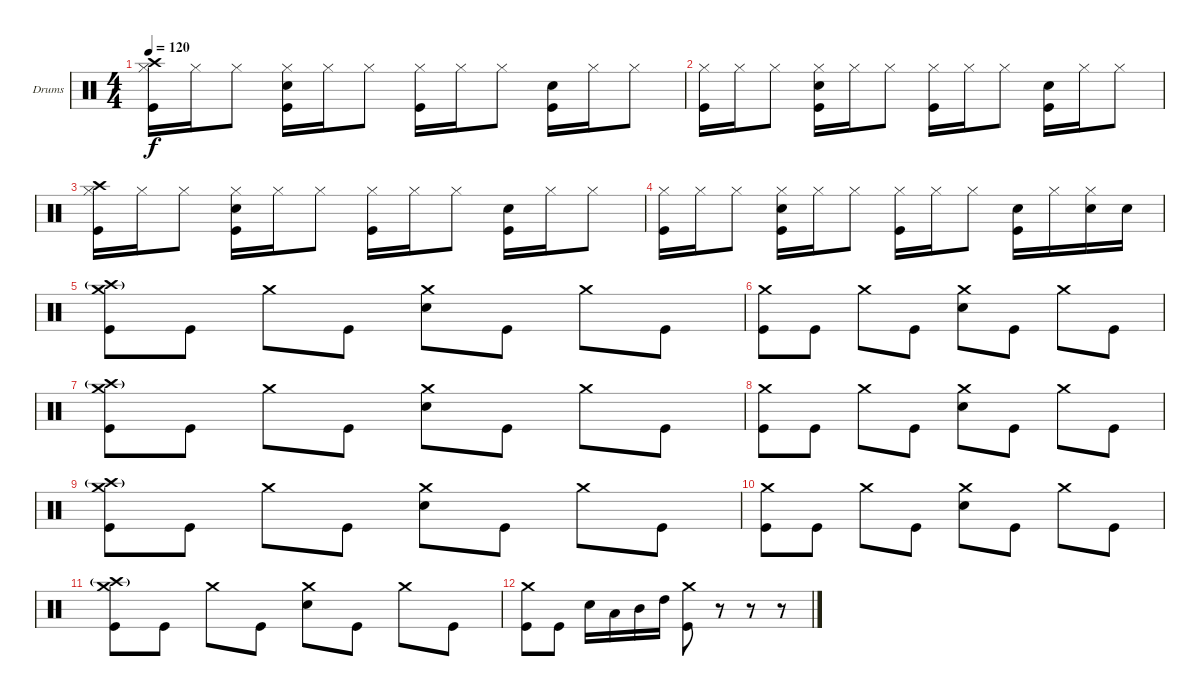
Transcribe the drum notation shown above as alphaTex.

\defaultSystemsLayout 4
\bracketExtendMode groupsimilarinstruments
\firstSystemTrackNameOrientation horizontal
\otherSystemsTrackNameOrientation horizontal
\track ("Drumkit" "Drums") {instrument percussion}
\staff {score}
\articulation defaults
\ts (4 4)
\tempo 120
\clef neutral
\ks c
("Hi-Hat (closed)" "Crash high (hit)" "Kick (hit)").16{dy f} "Hi-Hat (closed)".16 "Hi-Hat (closed)".8 ("Hi-Hat (closed)" "Snare (hit) 2" "Kick (hit)").16 "Hi-Hat (closed)".16 "Hi-Hat (closed)".8 ("Hi-Hat (closed)" "Kick (hit)").16 "Hi-Hat (closed)".16 "Hi-Hat (closed)".8 ("Snare (hit) 2" "Kick (hit)").16 "Hi-Hat (closed)".16 "Hi-Hat (closed)".8 |
("Hi-Hat (closed)" "Kick (hit)").16 "Hi-Hat (closed)".16 "Hi-Hat (closed)".8 ("Hi-Hat (closed)" "Snare (hit) 2" "Kick (hit)").16 "Hi-Hat (closed)".16 "Hi-Hat (closed)".8 ("Hi-Hat (closed)" "Kick (hit)").16 "Hi-Hat (closed)".16 "Hi-Hat (closed)".8 ("Snare (hit) 2" "Kick (hit)").16 "Hi-Hat (closed)".16 "Hi-Hat (closed)".8 |
("Hi-Hat (closed)" "Crash high (hit)" "Kick (hit)").16 "Hi-Hat (closed)".16 "Hi-Hat (closed)".8 ("Hi-Hat (closed)" "Snare (hit) 2" "Kick (hit)").16 "Hi-Hat (closed)".16 "Hi-Hat (closed)".8 ("Hi-Hat (closed)" "Kick (hit)").16 "Hi-Hat (closed)".16 "Hi-Hat (closed)".8 ("Snare (hit) 2" "Kick (hit)").16 "Hi-Hat (closed)".16 "Hi-Hat (closed)".8 |
("Hi-Hat (closed)" "Kick (hit)").16 "Hi-Hat (closed)".16 "Hi-Hat (closed)".8 ("Hi-Hat (closed)" "Snare (hit) 2" "Kick (hit)").16 "Hi-Hat (closed)".16 "Hi-Hat (closed)".8 ("Hi-Hat (closed)" "Kick (hit)").16 "Hi-Hat (closed)".16 "Hi-Hat (closed)".8 ("Snare (hit) 2" "Kick (hit)").16 "Hi-Hat (closed)".16 ("Hi-Hat (closed)" "Snare (hit) 2").16 "Snare (hit) 2".16 |
("Crash medium (hit)" "Crash high (hit)"{g} "Kick (hit)").8 "Kick (hit)".8 "Crash medium (hit)".8 "Kick (hit)".8 ("Crash medium (hit)" "Snare (hit) 2").8 "Kick (hit)".8 "Crash medium (hit)".8 "Kick (hit)".8 |
("Crash medium (hit)" "Kick (hit)").8 "Kick (hit)".8 "Crash medium (hit)".8 "Kick (hit)".8 ("Crash medium (hit)" "Snare (hit) 2").8 "Kick (hit)".8 "Crash medium (hit)".8 "Kick (hit)".8 |
("Crash medium (hit)" "Crash high (hit)"{g} "Kick (hit)").8 "Kick (hit)".8 "Crash medium (hit)".8 "Kick (hit)".8 ("Crash medium (hit)" "Snare (hit) 2").8 "Kick (hit)".8 "Crash medium (hit)".8 "Kick (hit)".8 |
("Crash medium (hit)" "Kick (hit)").8 "Kick (hit)".8 "Crash medium (hit)".8 "Kick (hit)".8 ("Crash medium (hit)" "Snare (hit) 2").8 "Kick (hit)".8 "Crash medium (hit)".8 "Kick (hit)".8 |
("Crash medium (hit)" "Crash high (hit)"{g} "Kick (hit)").8 "Kick (hit)".8 "Crash medium (hit)".8 "Kick (hit)".8 ("Crash medium (hit)" "Snare (hit) 2").8 "Kick (hit)".8 "Crash medium (hit)".8 "Kick (hit)".8 |
("Crash medium (hit)" "Kick (hit)").8 "Kick (hit)".8 "Crash medium (hit)".8 "Kick (hit)".8 ("Crash medium (hit)" "Snare (hit) 2").8 "Kick (hit)".8 "Crash medium (hit)".8 "Kick (hit)".8 |
("Crash medium (hit)" "Crash high (hit)"{g} "Kick (hit)").8 "Kick (hit)".8 "Crash medium (hit)".8 "Kick (hit)".8 ("Crash medium (hit)" "Snare (hit) 2").8 "Kick (hit)".8 "Crash medium (hit)".8 "Kick (hit)".8 |
("Crash medium (hit)" "Kick (hit)").8 "Kick (hit)".8 "Snare (hit) 2".16 "Low Tom (hit)".16 "Mid Tom (hit)".16 "High Tom (hit)".16 ("Crash medium (hit)" "Kick (hit)").8 r.8 r.8 r.8
